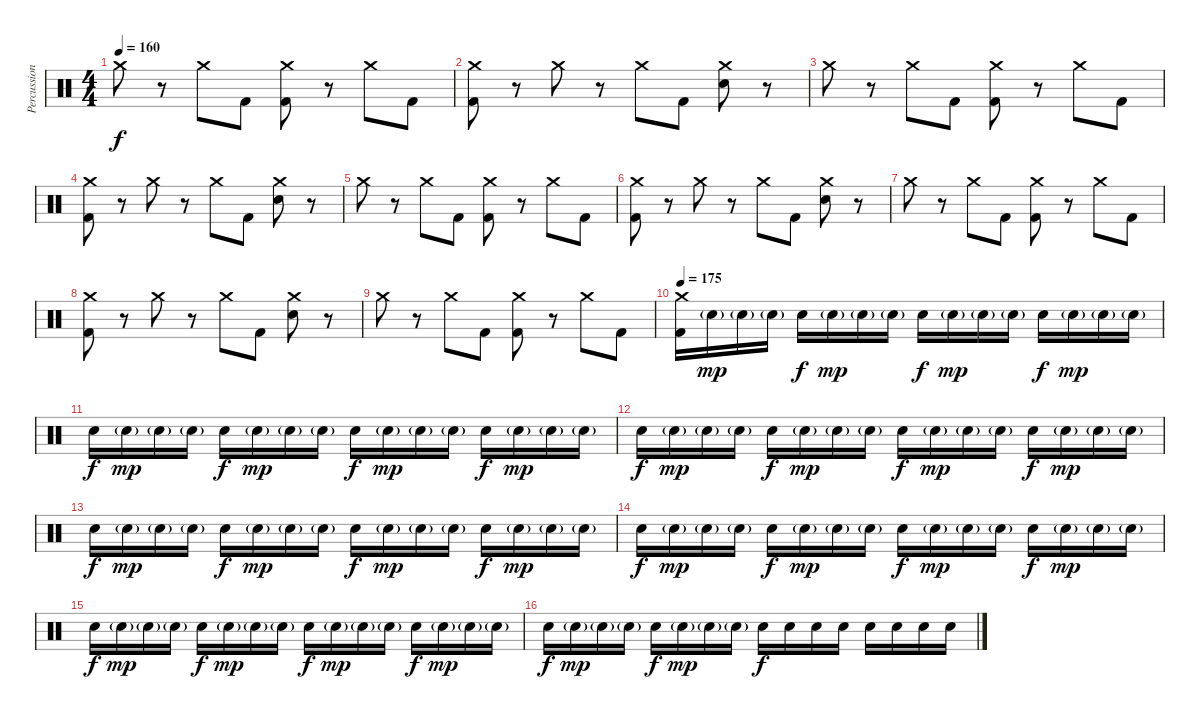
\track ("Percussion" "Percussion") {instrument percussion}
\staff {score}
\articulation defaults
\ts (4 4)
\tempo 160
\clef neutral
\ks c "Crash medium (hit)".8{dy f}
r.8 "Crash medium (hit)".8 "Kick (hit) 2".8 ("Crash medium (hit)" "Kick (hit) 2").8 r.8 "Crash medium (hit)".8 "Kick (hit) 2".8 |
("Crash medium (hit)" "Kick (hit) 2").8 r.8 "Crash medium (hit)".8 r.8 "Crash medium (hit)".8 "Kick (hit) 2".8 ("Crash medium (hit)" "Electric Snare (hit)").8 r.8 |
"Crash medium (hit)".8 r.8 "Crash medium (hit)".8 "Kick (hit) 2".8 ("Crash medium (hit)" "Kick (hit) 2").8 r.8 "Crash medium (hit)".8 "Kick (hit) 2".8 |
("Crash medium (hit)" "Kick (hit) 2").8 r.8 "Crash medium (hit)".8 r.8 "Crash medium (hit)".8 "Kick (hit) 2".8 ("Crash medium (hit)" "Electric Snare (hit)").8 r.8 |
"Crash medium (hit)".8 r.8 "Crash medium (hit)".8 "Kick (hit) 2".8 ("Crash medium (hit)" "Kick (hit) 2").8 r.8 "Crash medium (hit)".8 "Kick (hit) 2".8 |
("Crash medium (hit)" "Kick (hit) 2").8 r.8 "Crash medium (hit)".8 r.8 "Crash medium (hit)".8 "Kick (hit) 2".8 ("Crash medium (hit)" "Electric Snare (hit)").8 r.8 |
"Crash medium (hit)".8 r.8 "Crash medium (hit)".8 "Kick (hit) 2".8 ("Crash medium (hit)" "Kick (hit) 2").8 r.8 "Crash medium (hit)".8 "Kick (hit) 2".8 |
("Crash medium (hit)" "Kick (hit) 2").8 r.8 "Crash medium (hit)".8 r.8 "Crash medium (hit)".8 "Kick (hit) 2".8 ("Crash medium (hit)" "Electric Snare (hit)").8 r.8 |
"Crash medium (hit)".8 r.8 "Crash medium (hit)".8 "Kick (hit) 2".8 ("Crash medium (hit)" "Kick (hit) 2").8 r.8 "Crash medium (hit)".8 "Kick (hit) 2".8 |
\tempo 175
("Crash medium (hit)" "Kick (hit) 2").16 "Electric Snare (hit)"{g}.16{dy mp} "Electric Snare (hit)"{g}.16 "Electric Snare (hit)"{g}.16 "Electric Snare (hit)".16{dy f} "Electric Snare (hit)"{g}.16{dy mp} "Electric Snare (hit)"{g}.16 "Electric Snare (hit)"{g}.16 "Electric Snare (hit)".16{dy f} "Electric Snare (hit)"{g}.16{dy mp} "Electric Snare (hit)"{g}.16 "Electric Snare (hit)"{g}.16 "Electric Snare (hit)".16{dy f} "Electric Snare (hit)"{g}.16{dy mp} "Electric Snare (hit)"{g}.16 "Electric Snare (hit)"{g}.16 |
"Electric Snare (hit)".16{dy f} "Electric Snare (hit)"{g}.16{dy mp} "Electric Snare (hit)"{g}.16 "Electric Snare (hit)"{g}.16 "Electric Snare (hit)".16{dy f} "Electric Snare (hit)"{g}.16{dy mp} "Electric Snare (hit)"{g}.16 "Electric Snare (hit)"{g}.16 "Electric Snare (hit)".16{dy f} "Electric Snare (hit)"{g}.16{dy mp} "Electric Snare (hit)"{g}.16 "Electric Snare (hit)"{g}.16 "Electric Snare (hit)".16{dy f} "Electric Snare (hit)"{g}.16{dy mp} "Electric Snare (hit)"{g}.16 "Electric Snare (hit)"{g}.16 |
"Electric Snare (hit)".16{dy f} "Electric Snare (hit)"{g}.16{dy mp} "Electric Snare (hit)"{g}.16 "Electric Snare (hit)"{g}.16 "Electric Snare (hit)".16{dy f} "Electric Snare (hit)"{g}.16{dy mp} "Electric Snare (hit)"{g}.16 "Electric Snare (hit)"{g}.16 "Electric Snare (hit)".16{dy f} "Electric Snare (hit)"{g}.16{dy mp} "Electric Snare (hit)"{g}.16 "Electric Snare (hit)"{g}.16 "Electric Snare (hit)".16{dy f} "Electric Snare (hit)"{g}.16{dy mp} "Electric Snare (hit)"{g}.16 "Electric Snare (hit)"{g}.16 |
"Electric Snare (hit)".16{dy f} "Electric Snare (hit)"{g}.16{dy mp} "Electric Snare (hit)"{g}.16 "Electric Snare (hit)"{g}.16 "Electric Snare (hit)".16{dy f} "Electric Snare (hit)"{g}.16{dy mp} "Electric Snare (hit)"{g}.16 "Electric Snare (hit)"{g}.16 "Electric Snare (hit)".16{dy f} "Electric Snare (hit)"{g}.16{dy mp} "Electric Snare (hit)"{g}.16 "Electric Snare (hit)"{g}.16 "Electric Snare (hit)".16{dy f} "Electric Snare (hit)"{g}.16{dy mp} "Electric Snare (hit)"{g}.16 "Electric Snare (hit)"{g}.16 |
"Electric Snare (hit)".16{dy f} "Electric Snare (hit)"{g}.16{dy mp} "Electric Snare (hit)"{g}.16 "Electric Snare (hit)"{g}.16 "Electric Snare (hit)".16{dy f} "Electric Snare (hit)"{g}.16{dy mp} "Electric Snare (hit)"{g}.16 "Electric Snare (hit)"{g}.16 "Electric Snare (hit)".16{dy f} "Electric Snare (hit)"{g}.16{dy mp} "Electric Snare (hit)"{g}.16 "Electric Snare (hit)"{g}.16 "Electric Snare (hit)".16{dy f} "Electric Snare (hit)"{g}.16{dy mp} "Electric Snare (hit)"{g}.16 "Electric Snare (hit)"{g}.16 |
"Electric Snare (hit)".16{dy f} "Electric Snare (hit)"{g}.16{dy mp} "Electric Snare (hit)"{g}.16 "Electric Snare (hit)"{g}.16 "Electric Snare (hit)".16{dy f} "Electric Snare (hit)"{g}.16{dy mp} "Electric Snare (hit)"{g}.16 "Electric Snare (hit)"{g}.16 "Electric Snare (hit)".16{dy f} "Electric Snare (hit)"{g}.16{dy mp} "Electric Snare (hit)"{g}.16 "Electric Snare (hit)"{g}.16 "Electric Snare (hit)".16{dy f} "Electric Snare (hit)"{g}.16{dy mp} "Electric Snare (hit)"{g}.16 "Electric Snare (hit)"{g}.16 |
"Electric Snare (hit)".16{dy f} "Electric Snare (hit)"{g}.16{dy mp} "Electric Snare (hit)"{g}.16 "Electric Snare (hit)"{g}.16 "Electric Snare (hit)".16{dy f} "Electric Snare (hit)"{g}.16{dy mp} "Electric Snare (hit)"{g}.16 "Electric Snare (hit)"{g}.16 "Electric Snare (hit)".16{dy f} "Electric Snare (hit)".16 "Electric Snare (hit)".16 "Electric Snare (hit)".16 "Electric Snare (hit)".16 "Electric Snare (hit)".16 "Electric Snare (hit)".16 "Electric Snare (hit)".16
